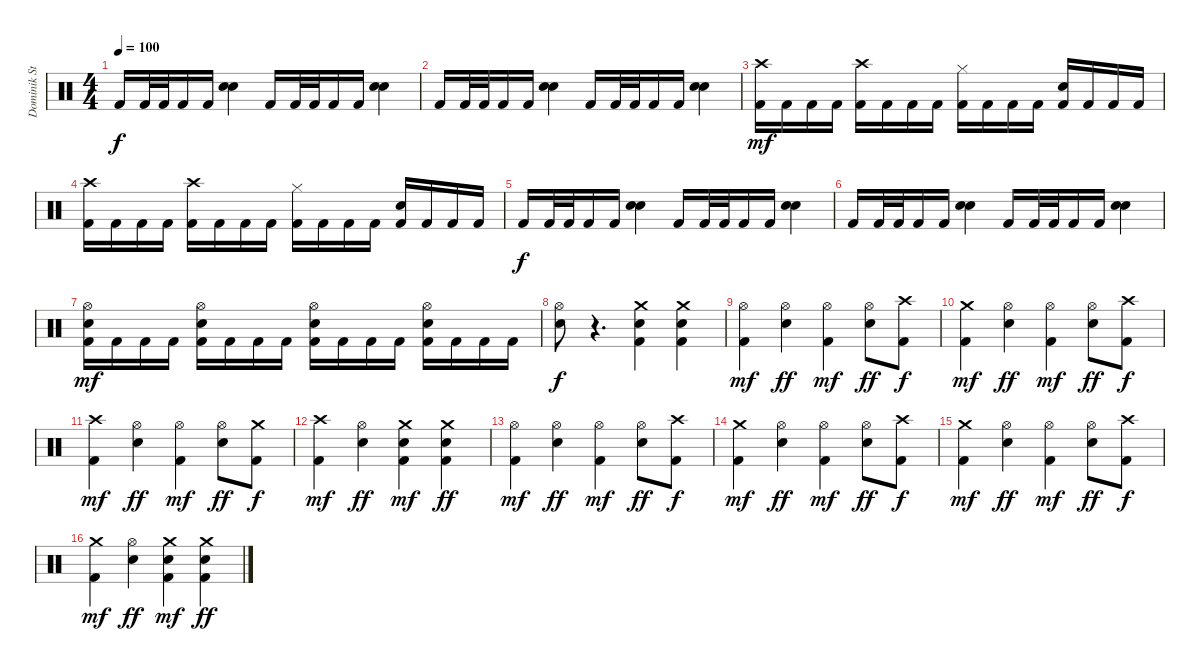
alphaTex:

\track ("Dominik Storch" "Dominik St") {instrument percussion}
\staff {score}
\articulation defaults
\ts (4 4)
\tempo 100
\clef neutral
\ks c "Kick (hit) 2".16{dy f} "Kick (hit) 2".32 "Kick (hit) 2".32 "Kick (hit) 2".16 "Kick (hit) 2".16
("Electric Snare (hit)" "Electric Snare (hit)").4{bd 240} "Kick (hit) 2".16 "Kick (hit) 2".32 "Kick (hit) 2".32 "Kick (hit) 2".16 "Kick (hit) 2".16 ("Electric Snare (hit)" "Electric Snare (hit)").4{bd 240} |
"Kick (hit) 2".16 "Kick (hit) 2".32 "Kick (hit) 2".32 "Kick (hit) 2".16 "Kick (hit) 2".16 ("Electric Snare (hit)" "Electric Snare (hit)").4{bd 240} "Kick (hit) 2".16 "Kick (hit) 2".32 "Kick (hit) 2".32 "Kick (hit) 2".16 "Kick (hit) 2".16 ("Electric Snare (hit)" "Electric Snare (hit)").4{bd 240} |
("Crash high (hit)" "Kick (hit) 2").16{dy mf} "Kick (hit) 2".16 "Kick (hit) 2".16 "Kick (hit) 2".16 ("Crash high (hit)" "Kick (hit) 2").16 "Kick (hit) 2".16 "Kick (hit) 2".16 "Kick (hit) 2".16 ("Hi-Hat (closed)" "Kick (hit) 2").16 "Kick (hit) 2".16 "Kick (hit) 2".16 "Kick (hit) 2".16 ("Electric Snare (hit)" "Kick (hit) 2").16 "Kick (hit) 2".16 "Kick (hit) 2".16 "Kick (hit) 2".16 |
("Crash high (hit)" "Kick (hit) 2").16 "Kick (hit) 2".16 "Kick (hit) 2".16 "Kick (hit) 2".16 ("Crash high (hit)" "Kick (hit) 2").16 "Kick (hit) 2".16 "Kick (hit) 2".16 "Kick (hit) 2".16 ("Hi-Hat (closed)" "Kick (hit) 2").16 "Kick (hit) 2".16 "Kick (hit) 2".16 "Kick (hit) 2".16 ("Electric Snare (hit)" "Kick (hit) 2").16 "Kick (hit) 2".16 "Kick (hit) 2".16 "Kick (hit) 2".16 |
"Kick (hit) 2".16{dy f} "Kick (hit) 2".32 "Kick (hit) 2".32 "Kick (hit) 2".16 "Kick (hit) 2".16 ("Electric Snare (hit)" "Electric Snare (hit)").4{bd 240} "Kick (hit) 2".16 "Kick (hit) 2".32 "Kick (hit) 2".32 "Kick (hit) 2".16 "Kick (hit) 2".16 ("Electric Snare (hit)" "Electric Snare (hit)").4{bd 240} |
"Kick (hit) 2".16 "Kick (hit) 2".32 "Kick (hit) 2".32 "Kick (hit) 2".16 "Kick (hit) 2".16 ("Electric Snare (hit)" "Electric Snare (hit)").4{bd 240} "Kick (hit) 2".16 "Kick (hit) 2".32 "Kick (hit) 2".32 "Kick (hit) 2".16 "Kick (hit) 2".16 ("Electric Snare (hit)" "Electric Snare (hit)").4{bd 240} |
("Hi-Hat (open)" "Electric Snare (hit)" "Kick (hit) 2").16{dy mf} "Kick (hit) 2".16 "Kick (hit) 2".16 "Kick (hit) 2".16 ("Hi-Hat (open)" "Electric Snare (hit)" "Kick (hit) 2").16 "Kick (hit) 2".16 "Kick (hit) 2".16 "Kick (hit) 2".16 ("Hi-Hat (open)" "Electric Snare (hit)" "Kick (hit) 2").16 "Kick (hit) 2".16 "Kick (hit) 2".16 "Kick (hit) 2".16 ("Hi-Hat (open)" "Electric Snare (hit)" "Kick (hit) 2").16 "Kick (hit) 2".16 "Kick (hit) 2".16 "Kick (hit) 2".16 |
("Hi-Hat (open)" "Electric Snare (hit)").8{dy f} r.4{d} ("Crash medium (hit)" "Electric Snare (hit)" "Kick (hit) 2").4 ("Crash medium (hit)" "Electric Snare (hit)" "Kick (hit) 2").4 |
("Hi-Hat (open)" "Kick (hit) 2").4{dy mf} ("Hi-Hat (open)" "Electric Snare (hit)").4{dy ff} ("Hi-Hat (open)" "Kick (hit) 2").4{dy mf} ("Hi-Hat (open)" "Electric Snare (hit)").8{dy ff} ("Crash high (hit)" "Kick (hit) 2").8{dy f} |
("Crash medium (hit)" "Kick (hit) 2").4{dy mf} ("Hi-Hat (open)" "Electric Snare (hit)").4{dy ff} ("Hi-Hat (open)" "Kick (hit) 2").4{dy mf} ("Hi-Hat (open)" "Electric Snare (hit)").8{dy ff} ("Crash high (hit)" "Kick (hit) 2").8{dy f} |
("Crash high (hit)" "Kick (hit) 2").4{dy mf} ("Hi-Hat (open)" "Electric Snare (hit)").4{dy ff} ("Hi-Hat (open)" "Kick (hit) 2").4{dy mf} ("Hi-Hat (open)" "Electric Snare (hit)").8{dy ff} ("Crash medium (hit)" "Kick (hit) 2").8{dy f} |
("Crash high (hit)" "Kick (hit) 2").4{dy mf} ("Hi-Hat (open)" "Electric Snare (hit)").4{dy ff} ("Crash medium (hit)" "Electric Snare (hit)" "Kick (hit) 2").4{dy mf} ("Crash medium (hit)" "Electric Snare (hit)" "Kick (hit) 2").4{dy ff} |
("Hi-Hat (open)" "Kick (hit) 2").4{dy mf} ("Hi-Hat (open)" "Electric Snare (hit)").4{dy ff} ("Hi-Hat (open)" "Kick (hit) 2").4{dy mf} ("Hi-Hat (open)" "Electric Snare (hit)").8{dy ff} ("Crash high (hit)" "Kick (hit) 2").8{dy f} |
("Crash medium (hit)" "Kick (hit) 2").4{dy mf} ("Hi-Hat (open)" "Electric Snare (hit)").4{dy ff} ("Hi-Hat (open)" "Kick (hit) 2").4{dy mf} ("Hi-Hat (open)" "Electric Snare (hit)").8{dy ff} ("Crash high (hit)" "Kick (hit) 2").8{dy f} |
("Crash medium (hit)" "Kick (hit) 2").4{dy mf} ("Hi-Hat (open)" "Electric Snare (hit)").4{dy ff} ("Hi-Hat (open)" "Kick (hit) 2").4{dy mf} ("Hi-Hat (open)" "Electric Snare (hit)").8{dy ff} ("Crash high (hit)" "Kick (hit) 2").8{dy f} |
("Crash medium (hit)" "Kick (hit) 2").4{dy mf} ("Hi-Hat (open)" "Electric Snare (hit)").4{dy ff} ("Crash medium (hit)" "Electric Snare (hit)" "Kick (hit) 2").4{dy mf} ("Crash medium (hit)" "Electric Snare (hit)" "Kick (hit) 2").4{dy ff}
